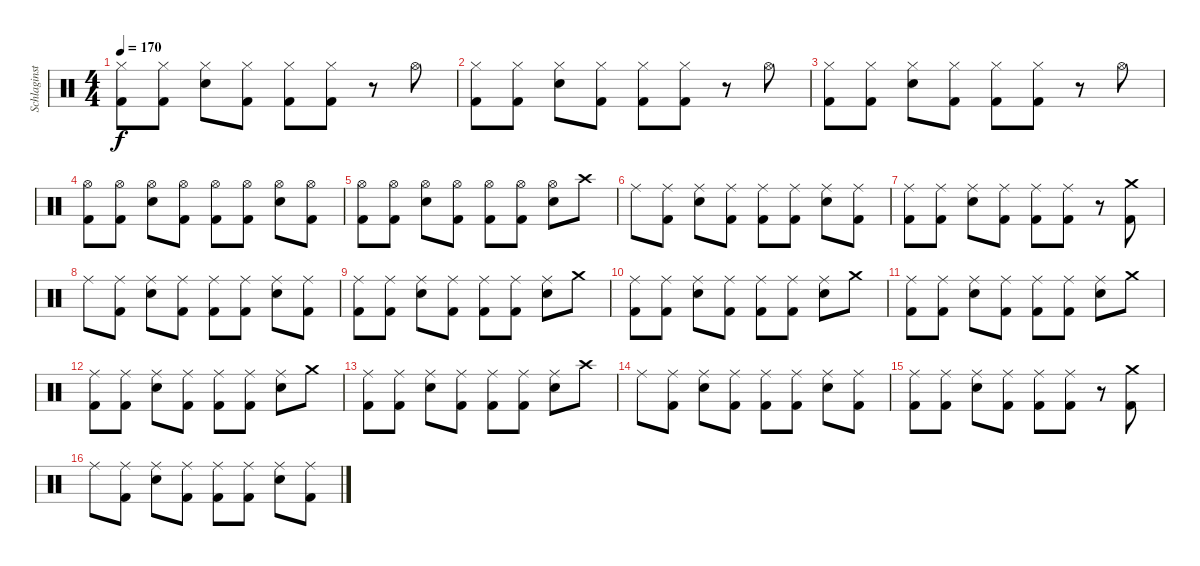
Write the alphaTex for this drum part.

\track ("Schlaginstrumente - Auswahl" "Schlaginst") {instrument percussion}
\staff {score}
\articulation defaults
\ts (4 4)
\tempo 170
\clef neutral
\ks c
("Hi-Hat (closed)" "Kick (hit) 2").8{dy f} ("Hi-Hat (closed)" "Kick (hit) 2").8 ("Hi-Hat (closed)" "Snare (hit) 2").8 ("Hi-Hat (closed)" "Kick (hit) 2").8 ("Hi-Hat (closed)" "Kick (hit) 2").8 ("Hi-Hat (closed)" "Kick (hit) 2").8 r.8 "Hi-Hat (open)".8 |
("Hi-Hat (closed)" "Kick (hit) 2").8 ("Hi-Hat (closed)" "Kick (hit) 2").8 ("Hi-Hat (closed)" "Snare (hit) 2").8 ("Hi-Hat (closed)" "Kick (hit) 2").8 ("Hi-Hat (closed)" "Kick (hit) 2").8 ("Hi-Hat (closed)" "Kick (hit) 2").8 r.8 "Hi-Hat (open)".8 |
("Hi-Hat (closed)" "Kick (hit) 2").8 ("Hi-Hat (closed)" "Kick (hit) 2").8 ("Hi-Hat (closed)" "Snare (hit) 2").8 ("Hi-Hat (closed)" "Kick (hit) 2").8 ("Hi-Hat (closed)" "Kick (hit) 2").8 ("Hi-Hat (closed)" "Kick (hit) 2").8 r.8 "Hi-Hat (open)".8 |
("Hi-Hat (open)" "Kick (hit) 2").8 ("Hi-Hat (open)" "Kick (hit) 2").8 ("Hi-Hat (open)" "Snare (hit) 2").8 ("Hi-Hat (open)" "Kick (hit) 2").8 ("Hi-Hat (open)" "Kick (hit) 2").8 ("Hi-Hat (open)" "Kick (hit) 2").8 ("Hi-Hat (open)" "Snare (hit) 2").8 ("Hi-Hat (open)" "Kick (hit) 2").8 |
("Hi-Hat (open)" "Kick (hit) 2").8 ("Hi-Hat (open)" "Kick (hit) 2").8 ("Hi-Hat (open)" "Snare (hit) 2").8 ("Hi-Hat (open)" "Kick (hit) 2").8 ("Hi-Hat (open)" "Kick (hit) 2").8 ("Hi-Hat (open)" "Kick (hit) 2").8 ("Hi-Hat (open)" "Snare (hit) 2").8 "Crash high (hit)".8 |
"Ride (middle)".8 ("Ride (middle)" "Kick (hit) 2").8 ("Ride (middle)" "Snare (hit) 2").8 ("Ride (middle)" "Kick (hit) 2").8 ("Ride (middle)" "Kick (hit) 2").8 ("Ride (middle)" "Kick (hit) 2").8 ("Ride (middle)" "Snare (hit) 2").8 ("Ride (middle)" "Kick (hit) 2").8 |
("Ride (middle)" "Kick (hit) 2").8 ("Ride (middle)" "Kick (hit) 2").8 ("Ride (middle)" "Snare (hit) 2").8 ("Ride (middle)" "Kick (hit) 2").8 ("Ride (middle)" "Kick (hit) 2").8 ("Ride (middle)" "Kick (hit) 2").8 r.8 ("Crash medium (hit)" "Kick (hit) 2").8 |
"Ride (middle)".8 ("Ride (middle)" "Kick (hit) 2").8 ("Ride (middle)" "Snare (hit) 2").8 ("Ride (middle)" "Kick (hit) 2").8 ("Ride (middle)" "Kick (hit) 2").8 ("Ride (middle)" "Kick (hit) 2").8 ("Ride (middle)" "Snare (hit) 2").8 ("Ride (middle)" "Kick (hit) 2").8 |
("Ride (middle)" "Kick (hit) 2").8 ("Ride (middle)" "Kick (hit) 2").8 ("Ride (middle)" "Snare (hit) 2").8 ("Ride (middle)" "Kick (hit) 2").8 ("Ride (middle)" "Kick (hit) 2").8 ("Ride (middle)" "Kick (hit) 2").8 ("Ride (middle)" "Snare (hit) 2").8 "Crash medium (hit)".8 |
("Ride (middle)" "Kick (hit) 2").8 ("Ride (middle)" "Kick (hit) 2").8 ("Ride (middle)" "Snare (hit) 2").8 ("Ride (middle)" "Kick (hit) 2").8 ("Ride (middle)" "Kick (hit) 2").8 ("Ride (middle)" "Kick (hit) 2").8 ("Ride (middle)" "Snare (hit) 2").8 "Crash medium (hit)".8 |
("Ride (middle)" "Kick (hit) 2").8 ("Ride (middle)" "Kick (hit) 2").8 ("Ride (middle)" "Snare (hit) 2").8 ("Ride (middle)" "Kick (hit) 2").8 ("Ride (middle)" "Kick (hit) 2").8 ("Ride (middle)" "Kick (hit) 2").8 ("Ride (middle)" "Snare (hit) 2").8 "Crash medium (hit)".8 |
("Ride (middle)" "Kick (hit) 2").8 ("Ride (middle)" "Kick (hit) 2").8 ("Ride (middle)" "Snare (hit) 2").8 ("Ride (middle)" "Kick (hit) 2").8 ("Ride (middle)" "Kick (hit) 2").8 ("Ride (middle)" "Kick (hit) 2").8 ("Ride (middle)" "Snare (hit) 2").8 "Crash medium (hit)".8 |
("Ride (middle)" "Kick (hit) 2").8 ("Ride (middle)" "Kick (hit) 2").8 ("Ride (middle)" "Snare (hit) 2").8 ("Ride (middle)" "Kick (hit) 2").8 ("Ride (middle)" "Kick (hit) 2").8 ("Ride (middle)" "Kick (hit) 2").8 ("Ride (middle)" "Snare (hit) 2").8 "Crash high (hit)".8 |
"Ride (middle)".8 ("Ride (middle)" "Kick (hit) 2").8 ("Ride (middle)" "Snare (hit) 2").8 ("Ride (middle)" "Kick (hit) 2").8 ("Ride (middle)" "Kick (hit) 2").8 ("Ride (middle)" "Kick (hit) 2").8 ("Ride (middle)" "Snare (hit) 2").8 ("Ride (middle)" "Kick (hit) 2").8 |
("Ride (middle)" "Kick (hit) 2").8 ("Ride (middle)" "Kick (hit) 2").8 ("Ride (middle)" "Snare (hit) 2").8 ("Ride (middle)" "Kick (hit) 2").8 ("Ride (middle)" "Kick (hit) 2").8 ("Ride (middle)" "Kick (hit) 2").8 r.8 ("Crash medium (hit)" "Kick (hit) 2").8 |
"Ride (middle)".8 ("Ride (middle)" "Kick (hit) 2").8 ("Ride (middle)" "Snare (hit) 2").8 ("Ride (middle)" "Kick (hit) 2").8 ("Ride (middle)" "Kick (hit) 2").8 ("Ride (middle)" "Kick (hit) 2").8 ("Ride (middle)" "Snare (hit) 2").8 ("Ride (middle)" "Kick (hit) 2").8
